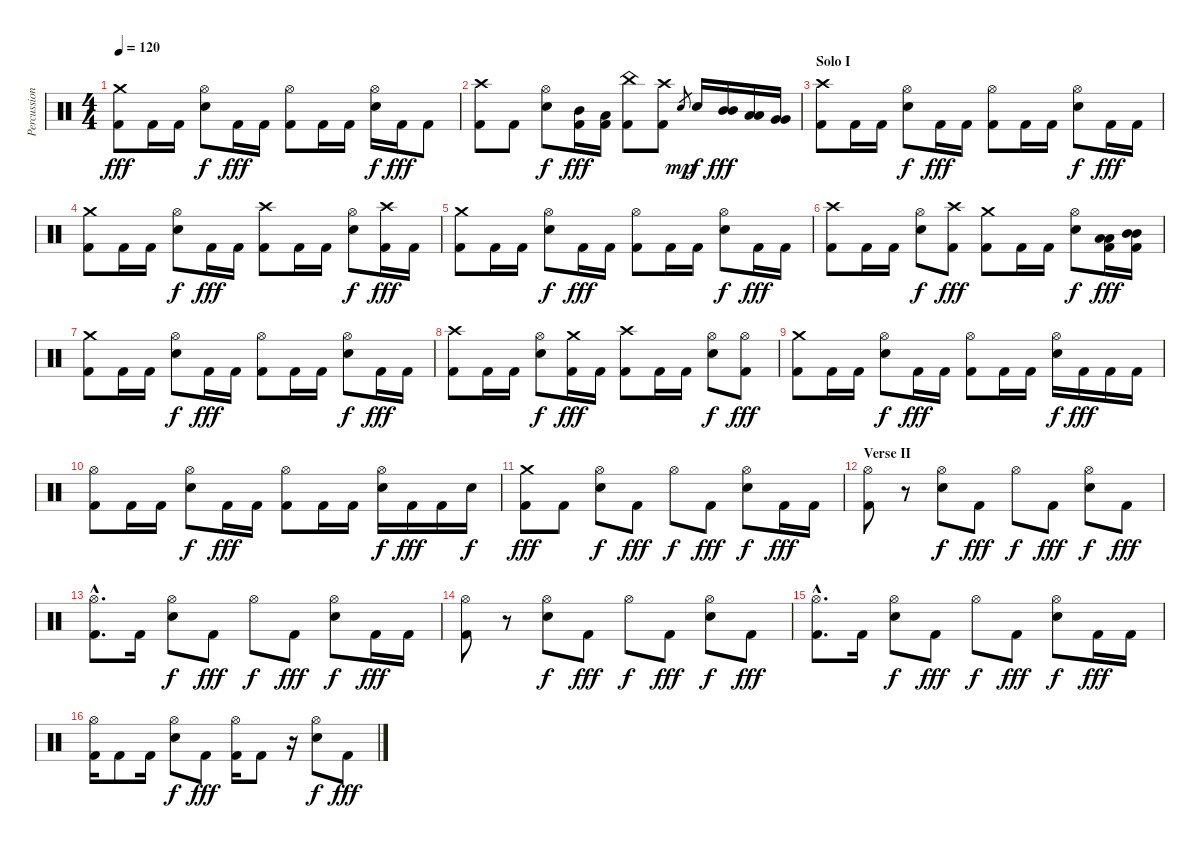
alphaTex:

\track ("Percussion" "Percussion") {instrument percussion}
\staff {score}
\articulation defaults
\ts (4 4)
\tempo 120
\clef neutral
\ks c
("Crash medium (hit)" "Kick (hit) 2").8{dy fff} "Kick (hit) 2".16 "Kick (hit) 2".16 ("Hi-Hat (open)" "Snare (hit) 2").8{dy f} "Kick (hit) 2".16{dy fff} "Kick (hit) 2".16 ("Hi-Hat (open)" "Kick (hit) 2").8 "Kick (hit) 2".16 "Kick (hit) 2".16 ("Hi-Hat (open)" "Snare (hit) 2").16{dy f} "Kick (hit) 2".16{dy fff} "Kick (hit) 2".8 |
("Crash high (hit)" "Kick (hit) 2").8 "Kick (hit) 2".8 ("Hi-Hat (open)" "Snare (hit) 2").8{dy f} ("Mid Tom (hit)" "Kick (hit) 2").16{dy fff} ("Low Tom (hit)" "Kick (hit) 2").16 ("China (hit)" "Kick (hit) 2").8 ("Crash high (hit)" "Kick (hit) 2").8 "Snare (hit) 2".8{gr dy mp} "Snare (hit) 2".16{dy f} ("Mid Tom (hit)" "Mid Tom (hit)").16{dy fff} ("Low Tom (hit)" "Low Tom (hit)").16 ("Very Low Tom (hit)" "Very Low Tom (hit)").16 |
\section ("" "Solo I")
("Crash high (hit)" "Kick (hit) 2").8 "Kick (hit) 2".16 "Kick (hit) 2".16 ("Hi-Hat (open)" "Snare (hit) 2").8{dy f} "Kick (hit) 2".16{dy fff} "Kick (hit) 2".16 ("Hi-Hat (open)" "Kick (hit) 2").8 "Kick (hit) 2".16 "Kick (hit) 2".16 ("Hi-Hat (open)" "Snare (hit) 2").8{dy f} "Kick (hit) 2".16{dy fff} "Kick (hit) 2".16 |
("Crash medium (hit)" "Kick (hit) 2").8 "Kick (hit) 2".16 "Kick (hit) 2".16 ("Hi-Hat (open)" "Snare (hit) 2").8{dy f} "Kick (hit) 2".16{dy fff} "Kick (hit) 2".16 ("Crash high (hit)" "Kick (hit) 2").8 "Kick (hit) 2".16 "Kick (hit) 2".16 ("Hi-Hat (open)" "Snare (hit) 2").8{dy f} ("Crash high (hit)" "Kick (hit) 2").16{dy fff} "Kick (hit) 2".16 |
("Crash medium (hit)" "Kick (hit) 2").8 "Kick (hit) 2".16 "Kick (hit) 2".16 ("Hi-Hat (open)" "Snare (hit) 2").8{dy f} "Kick (hit) 2".16{dy fff} "Kick (hit) 2".16 ("Hi-Hat (open)" "Kick (hit) 2").8 "Kick (hit) 2".16 "Kick (hit) 2".16 ("Hi-Hat (open)" "Snare (hit) 2").8{dy f} "Kick (hit) 2".16{dy fff} "Kick (hit) 2".16 |
("Crash high (hit)" "Kick (hit) 2").8 "Kick (hit) 2".16 "Kick (hit) 2".16 ("Hi-Hat (open)" "Snare (hit) 2").8{dy f} ("Crash high (hit)" "Kick (hit) 2").8{dy fff} ("Crash medium (hit)" "Kick (hit) 2").8 "Kick (hit) 2".16 "Kick (hit) 2".16 ("Hi-Hat (open)" "Snare (hit) 2").8{dy f} ("Low Tom (hit)" "Low Tom (hit)" "Kick (hit) 2").16{dy fff} ("Mid Tom (hit)" "Mid Tom (hit)" "Kick (hit) 2").16 |
("Crash medium (hit)" "Kick (hit) 2").8 "Kick (hit) 2".16 "Kick (hit) 2".16 ("Hi-Hat (open)" "Snare (hit) 2").8{dy f} "Kick (hit) 2".16{dy fff} "Kick (hit) 2".16 ("Hi-Hat (open)" "Kick (hit) 2").8 "Kick (hit) 2".16 "Kick (hit) 2".16 ("Hi-Hat (open)" "Snare (hit) 2").8{dy f} "Kick (hit) 2".16{dy fff} "Kick (hit) 2".16 |
("Crash high (hit)" "Kick (hit) 2").8 "Kick (hit) 2".16 "Kick (hit) 2".16 ("Hi-Hat (open)" "Snare (hit) 2").8{dy f} ("Crash medium (hit)" "Kick (hit) 2").16{dy fff} "Kick (hit) 2".16 ("Crash high (hit)" "Kick (hit) 2").8 "Kick (hit) 2".16 "Kick (hit) 2".16 ("Hi-Hat (open)" "Snare (hit) 2").8{dy f} ("Hi-Hat (open)" "Kick (hit) 2").8{dy fff} |
("Crash medium (hit)" "Kick (hit) 2").8 "Kick (hit) 2".16 "Kick (hit) 2".16 ("Hi-Hat (open)" "Snare (hit) 2").8{dy f} "Kick (hit) 2".16{dy fff} "Kick (hit) 2".16 ("Hi-Hat (open)" "Kick (hit) 2").8 "Kick (hit) 2".16 "Kick (hit) 2".16 ("Hi-Hat (open)" "Snare (hit) 2").16{dy f} "Kick (hit) 2".16{dy fff} "Kick (hit) 2".16 "Kick (hit) 2".16 |
("Hi-Hat (open)" "Kick (hit) 2").8 "Kick (hit) 2".16 "Kick (hit) 2".16 ("Hi-Hat (open)" "Snare (hit) 2").8{dy f} "Kick (hit) 2".16{dy fff} "Kick (hit) 2".16 ("Hi-Hat (open)" "Kick (hit) 2").8 "Kick (hit) 2".16 "Kick (hit) 2".16 ("Hi-Hat (open)" "Snare (hit) 2").16{dy f} "Kick (hit) 2".16{dy fff} "Kick (hit) 2".16 "Snare (hit) 2".16{dy f} |
("Crash medium (hit)" "Kick (hit) 2").8{dy fff} "Kick (hit) 2".8 ("Hi-Hat (open)" "Snare (hit) 2").8{dy f} "Kick (hit) 2".8{dy fff} "Hi-Hat (open)".8{dy f} "Kick (hit) 2".8{dy fff} ("Hi-Hat (open)" "Snare (hit) 2").8{dy f} "Kick (hit) 2".16{dy fff} "Kick (hit) 2".16 |
\section ("" "Verse II")
("Hi-Hat (open)" "Kick (hit) 2").8 r.8 ("Hi-Hat (open)" "Snare (hit) 2").8{dy f} "Kick (hit) 2".8{dy fff} "Hi-Hat (open)".8{dy f} "Kick (hit) 2".8{dy fff} ("Hi-Hat (open)" "Snare (hit) 2").8{dy f} "Kick (hit) 2".8{dy fff} |
("Hi-Hat (open)"{hac} "Kick (hit) 2"{hac}).8{d} "Kick (hit) 2".16 ("Hi-Hat (open)" "Snare (hit) 2").8{dy f} "Kick (hit) 2".8{dy fff} "Hi-Hat (open)".8{dy f} "Kick (hit) 2".8{dy fff} ("Hi-Hat (open)" "Snare (hit) 2").8{dy f} "Kick (hit) 2".16{dy fff} "Kick (hit) 2".16 |
("Hi-Hat (open)" "Kick (hit) 2").8 r.8 ("Hi-Hat (open)" "Snare (hit) 2").8{dy f} "Kick (hit) 2".8{dy fff} "Hi-Hat (open)".8{dy f} "Kick (hit) 2".8{dy fff} ("Hi-Hat (open)" "Snare (hit) 2").8{dy f} "Kick (hit) 2".8{dy fff} |
("Hi-Hat (open)"{hac} "Kick (hit) 2"{hac}).8{d} "Kick (hit) 2".16 ("Hi-Hat (open)" "Snare (hit) 2").8{dy f} "Kick (hit) 2".8{dy fff} "Hi-Hat (open)".8{dy f} "Kick (hit) 2".8{dy fff} ("Hi-Hat (open)" "Snare (hit) 2").8{dy f} "Kick (hit) 2".16{dy fff} "Kick (hit) 2".16 |
("Hi-Hat (open)" "Kick (hit) 2").16 "Kick (hit) 2".8 "Kick (hit) 2".16 ("Hi-Hat (open)" "Snare (hit) 2").8{dy f} "Kick (hit) 2".8{dy fff} ("Hi-Hat (open)" "Kick (hit) 2").16 "Kick (hit) 2".8 r.16 ("Hi-Hat (open)" "Snare (hit) 2").8{dy f} "Kick (hit) 2".8{dy fff}
